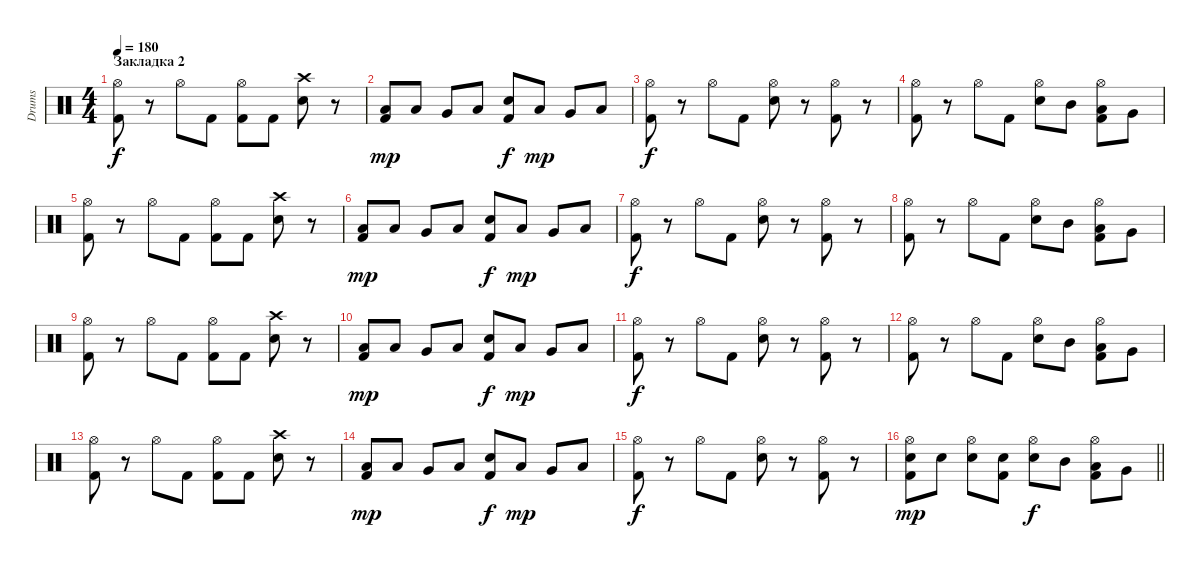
\track ("Drums" "Drums") {instrument percussion}
\staff {score}
\articulation defaults
\ts (4 4)
\section ("" "Закладка 2")
\tempo 180
\clef neutral
\ks c
("Hi-Hat (open)" "Kick (hit) 2").8{dy f} r.8 "Hi-Hat (open)".8 "Kick (hit) 2".8 ("Hi-Hat (open)" "Kick (hit) 2").8 "Kick (hit) 2".8 ("Crash high (hit)" "Electric Snare (hit)").8 r.8 |
("Low Tom (hit)" "Kick (hit) 2").8{dy mp} "Low Tom (hit)".8 "Very Low Tom (hit)".8 "Low Floor Tom (hit)".8 ("Electric Snare (hit)" "Kick (hit) 2").8{dy f} "Low Tom (hit)".8{dy mp} "Very Low Tom (hit)".8 "Low Floor Tom (hit)".8 |
("Hi-Hat (open)" "Kick (hit) 2").8{dy f} r.8 "Hi-Hat (open)".8 "Kick (hit) 2".8 ("Hi-Hat (open)" "Electric Snare (hit)").8 r.8 ("Hi-Hat (open)" "Kick (hit) 2").8 r.8 |
("Hi-Hat (open)" "Kick (hit) 2").8 r.8 "Hi-Hat (open)".8 "Kick (hit) 2".8 ("Hi-Hat (open)" "Electric Snare (hit)").8 "Mid Tom (hit)".8 ("Hi-Hat (open)" "Low Tom (hit)" "Kick (hit) 2").8 "Very Low Tom (hit)".8 |
("Hi-Hat (open)" "Kick (hit) 2").8 r.8 "Hi-Hat (open)".8 "Kick (hit) 2".8 ("Hi-Hat (open)" "Kick (hit) 2").8 "Kick (hit) 2".8 ("Crash high (hit)" "Electric Snare (hit)").8 r.8 |
("Low Tom (hit)" "Kick (hit) 2").8{dy mp} "Low Tom (hit)".8 "Very Low Tom (hit)".8 "Low Floor Tom (hit)".8 ("Electric Snare (hit)" "Kick (hit) 2").8{dy f} "Low Tom (hit)".8{dy mp} "Very Low Tom (hit)".8 "Low Floor Tom (hit)".8 |
("Hi-Hat (open)" "Kick (hit) 2").8{dy f} r.8 "Hi-Hat (open)".8 "Kick (hit) 2".8 ("Hi-Hat (open)" "Electric Snare (hit)").8 r.8 ("Hi-Hat (open)" "Kick (hit) 2").8 r.8 |
("Hi-Hat (open)" "Kick (hit) 2").8 r.8 "Hi-Hat (open)".8 "Kick (hit) 2".8 ("Hi-Hat (open)" "Electric Snare (hit)").8 "Mid Tom (hit)".8 ("Hi-Hat (open)" "Low Tom (hit)" "Kick (hit) 2").8 "Very Low Tom (hit)".8 |
("Hi-Hat (open)" "Kick (hit) 2").8 r.8 "Hi-Hat (open)".8 "Kick (hit) 2".8 ("Hi-Hat (open)" "Kick (hit) 2").8 "Kick (hit) 2".8 ("Crash high (hit)" "Electric Snare (hit)").8 r.8 |
("Low Tom (hit)" "Kick (hit) 2").8{dy mp} "Low Tom (hit)".8 "Very Low Tom (hit)".8 "Low Floor Tom (hit)".8 ("Electric Snare (hit)" "Kick (hit) 2").8{dy f} "Low Tom (hit)".8{dy mp} "Very Low Tom (hit)".8 "Low Floor Tom (hit)".8 |
("Hi-Hat (open)" "Kick (hit) 2").8{dy f} r.8 "Hi-Hat (open)".8 "Kick (hit) 2".8 ("Hi-Hat (open)" "Electric Snare (hit)").8 r.8 ("Hi-Hat (open)" "Kick (hit) 2").8 r.8 |
("Hi-Hat (open)" "Kick (hit) 2").8 r.8 "Hi-Hat (open)".8 "Kick (hit) 2".8 ("Hi-Hat (open)" "Electric Snare (hit)").8 "Mid Tom (hit)".8 ("Hi-Hat (open)" "Low Tom (hit)" "Kick (hit) 2").8 "Very Low Tom (hit)".8 |
("Hi-Hat (open)" "Kick (hit) 2").8 r.8 "Hi-Hat (open)".8 "Kick (hit) 2".8 ("Hi-Hat (open)" "Kick (hit) 2").8 "Kick (hit) 2".8 ("Crash high (hit)" "Electric Snare (hit)").8 r.8 |
("Low Tom (hit)" "Kick (hit) 2").8{dy mp} "Low Tom (hit)".8 "Very Low Tom (hit)".8 "Low Floor Tom (hit)".8 ("Electric Snare (hit)" "Kick (hit) 2").8{dy f} "Low Tom (hit)".8{dy mp} "Very Low Tom (hit)".8 "Low Floor Tom (hit)".8 |
("Hi-Hat (open)" "Kick (hit) 2").8{dy f} r.8 "Hi-Hat (open)".8 "Kick (hit) 2".8 ("Hi-Hat (open)" "Electric Snare (hit)").8 r.8 ("Hi-Hat (open)" "Kick (hit) 2").8 r.8 |
\barLineRight lightlight
("Hi-Hat (open)" "Electric Snare (hit)" "Kick (hit) 2").8{dy mp} "Electric Snare (hit)".8 ("Hi-Hat (open)" "Electric Snare (hit)").8 ("Electric Snare (hit)" "Kick (hit) 2").8 ("Hi-Hat (open)" "Electric Snare (hit)").8{dy f} "Mid Tom (hit)".8 ("Hi-Hat (open)" "Low Tom (hit)" "Kick (hit) 2").8 "Very Low Tom (hit)".8
